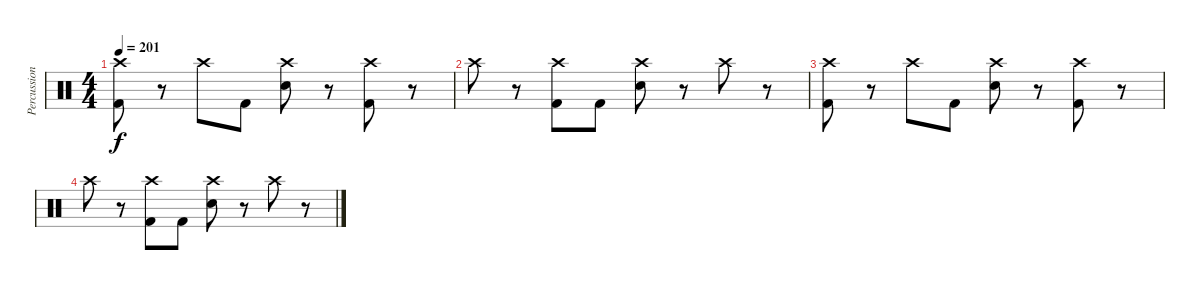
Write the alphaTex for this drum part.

\track ("Percussion" "Percussion") {instrument percussion}
\staff {score}
\articulation defaults
\ts (4 4)
\tempo 201
\clef neutral
\ks c
("Crash high (hit)" "Kick (hit) 2").8{dy f} r.8 "Crash high (hit)".8 "Kick (hit) 2".8 ("Crash high (hit)" "Electric Snare (hit)").8 r.8 ("Crash high (hit)" "Kick (hit) 2").8 r.8 |
"Crash high (hit)".8 r.8 ("Crash high (hit)" "Kick (hit) 2").8 "Kick (hit) 2".8 ("Crash high (hit)" "Electric Snare (hit)").8 r.8 "Crash high (hit)".8 r.8 |
("Crash high (hit)" "Kick (hit) 2").8 r.8 "Crash high (hit)".8 "Kick (hit) 2".8 ("Crash high (hit)" "Electric Snare (hit)").8 r.8 ("Crash high (hit)" "Kick (hit) 2").8 r.8 |
"Crash high (hit)".8 r.8 ("Crash high (hit)" "Kick (hit) 2").8 "Kick (hit) 2".8 ("Crash high (hit)" "Electric Snare (hit)").8 r.8 "Crash high (hit)".8 r.8
